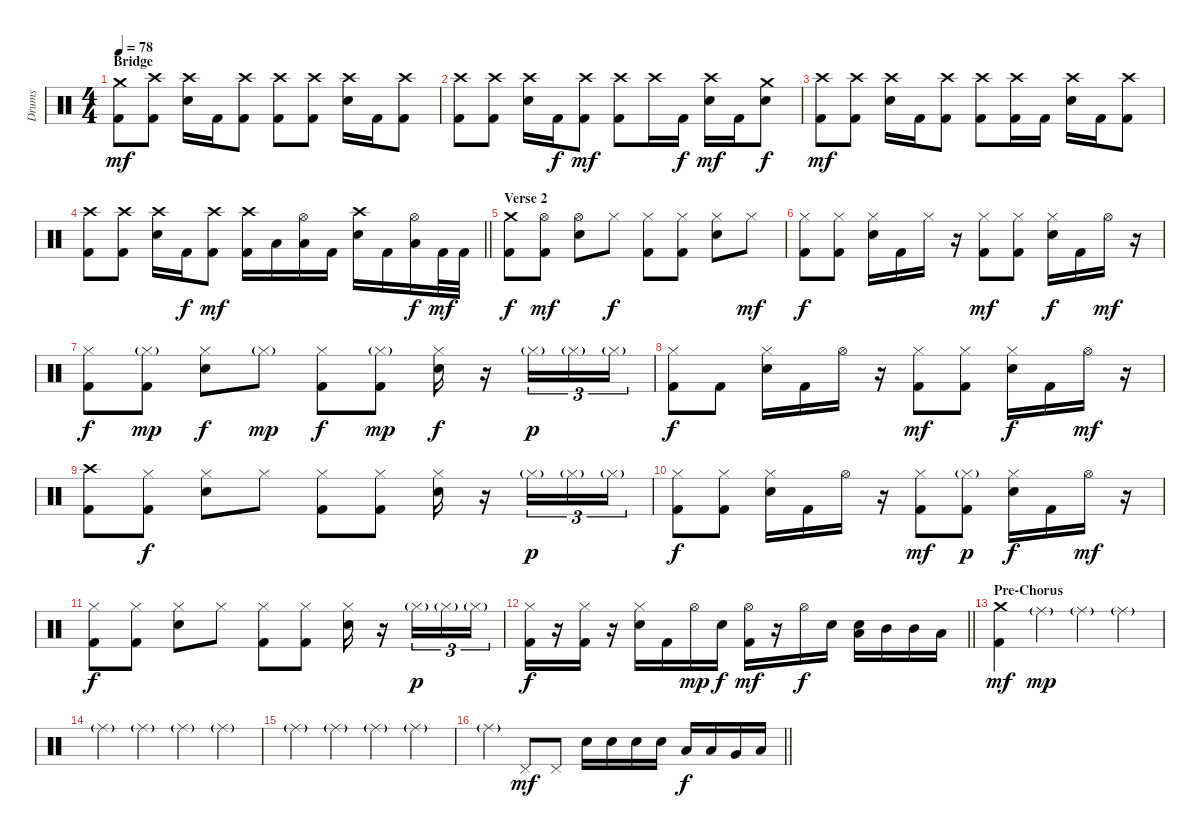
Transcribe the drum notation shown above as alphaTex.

\track ("Drums" "Drums") {instrument percussion}
\staff {score}
\articulation defaults
\ts (4 4)
\section ("" "Bridge")
\tempo 78
\clef neutral
\ks c
("Crash medium (hit)" "Kick (hit) 2").8{dy mf} ("Crash high (hit)" "Kick (hit) 2").8 ("Crash high (hit)" "Electric Snare (hit)").16 "Kick (hit) 2".16 ("Crash high (hit)" "Kick (hit) 2").8 ("Crash high (hit)" "Kick (hit) 2").8 ("Crash high (hit)" "Kick (hit) 2").8 ("Crash high (hit)" "Electric Snare (hit)").16 "Kick (hit) 2".16 ("Crash high (hit)" "Kick (hit) 2").8 |
("Crash high (hit)" "Kick (hit) 2").8 ("Crash high (hit)" "Kick (hit) 2").8 ("Crash high (hit)" "Electric Snare (hit)").16 "Kick (hit) 2".16{dy f} ("Crash high (hit)" "Kick (hit) 2").8{dy mf} ("Crash high (hit)" "Kick (hit) 2").8 "Crash high (hit)".16 "Kick (hit) 2".16{dy f} ("Crash high (hit)" "Electric Snare (hit)").16{dy mf} "Kick (hit) 2".16 ("Crash medium (hit)" "Electric Snare (hit)").8{dy f} |
("Crash high (hit)" "Kick (hit) 2").8{dy mf} ("Crash high (hit)" "Kick (hit) 2").8 ("Crash high (hit)" "Electric Snare (hit)").16 "Kick (hit) 2".16 ("Crash high (hit)" "Kick (hit) 2").8 ("Crash high (hit)" "Kick (hit) 2").8 ("Crash high (hit)" "Kick (hit) 2").16 "Kick (hit) 2".16 ("Crash high (hit)" "Electric Snare (hit)").16 "Kick (hit) 2".16 ("Crash high (hit)" "Kick (hit) 2").8 |
\barLineRight lightlight
("Crash high (hit)" "Kick (hit) 2").8 ("Crash high (hit)" "Kick (hit) 2").8 ("Crash high (hit)" "Electric Snare (hit)").16 "Kick (hit) 2".16{dy f} ("Crash high (hit)" "Kick (hit) 2").8{dy mf} ("Crash high (hit)" "Kick (hit) 2").16 "Low Tom (hit)".16 ("Hi-Hat (open)" "Low Tom (hit)").16 "Kick (hit) 2".16 ("Crash high (hit)" "Electric Snare (hit)").16 "Kick (hit) 2".16 ("Hi-Hat (open)" "Low Tom (hit)").16{dy f} "Kick (hit) 2".32{dy mf} "Kick (hit) 2".32 |
\section ("" "Verse 2")
("Crash medium (hit)" "Kick (hit) 2").8{dy f} ("Hi-Hat (open)" "Kick (hit) 2").8{dy mf} ("Hi-Hat (open)" "Electric Snare (hit)").8 "Hi-Hat (closed)".8{dy f} ("Hi-Hat (closed)" "Kick (hit) 2").8 ("Hi-Hat (closed)" "Kick (hit) 2").8 ("Hi-Hat (closed)" "Electric Snare (hit)").8 "Hi-Hat (closed)".8{dy mf} |
("Hi-Hat (closed)" "Kick (hit) 2").8{dy f} ("Hi-Hat (closed)" "Kick (hit) 2").8 ("Hi-Hat (closed)" "Electric Snare (hit)").16 "Kick (hit) 2".16 "Hi-Hat (closed)".16 r.16 ("Hi-Hat (closed)" "Kick (hit) 2").8{dy mf} ("Hi-Hat (closed)" "Kick (hit) 2").8 ("Hi-Hat (closed)" "Electric Snare (hit)").16{dy f} "Kick (hit) 2".16 "Hi-Hat (open)".16{dy mf} r.16 |
("Hi-Hat (closed)" "Kick (hit) 2").8{dy f} ("Hi-Hat (closed)"{g} "Kick (hit) 2").8{dy mp} ("Hi-Hat (closed)" "Electric Snare (hit)").8{dy f} "Hi-Hat (closed)"{g}.8{dy mp} ("Hi-Hat (closed)" "Kick (hit) 2").8{dy f} ("Hi-Hat (closed)"{g} "Kick (hit) 2").8{dy mp} ("Hi-Hat (closed)" "Electric Snare (hit)").16{dy f} r.16 "Hi-Hat (closed)"{g}.16{tu (3 2) dy p} "Hi-Hat (closed)"{g}.16{tu (3 2)} "Hi-Hat (closed)"{g}.16{tu (3 2)} |
("Hi-Hat (closed)" "Kick (hit) 2").8{dy f} "Kick (hit) 2".8 ("Hi-Hat (closed)" "Electric Snare (hit)").16 "Kick (hit) 2".16 "Hi-Hat (open)".16 r.16 ("Hi-Hat (closed)" "Kick (hit) 2").8{dy mf} ("Hi-Hat (closed)" "Kick (hit) 2").8 ("Hi-Hat (closed)" "Electric Snare (hit)").16{dy f} "Kick (hit) 2".16 "Hi-Hat (open)".16{dy mf} r.16 |
("Crash high (hit)" "Kick (hit) 2").8 ("Hi-Hat (closed)" "Kick (hit) 2").8{dy f} ("Hi-Hat (closed)" "Electric Snare (hit)").8 "Hi-Hat (closed)".8 ("Hi-Hat (closed)" "Kick (hit) 2").8 ("Hi-Hat (closed)" "Kick (hit) 2").8 ("Hi-Hat (closed)" "Electric Snare (hit)").16 r.16 "Hi-Hat (closed)"{g}.16{tu (3 2) dy p} "Hi-Hat (closed)"{g}.16{tu (3 2)} "Hi-Hat (closed)"{g}.16{tu (3 2)} |
("Hi-Hat (closed)" "Kick (hit) 2").8{dy f} ("Hi-Hat (closed)" "Kick (hit) 2").8 ("Hi-Hat (closed)" "Electric Snare (hit)").16 "Kick (hit) 2".16 "Hi-Hat (open)".16 r.16 ("Hi-Hat (closed)" "Kick (hit) 2").8{dy mf} ("Hi-Hat (closed)"{g} "Kick (hit) 2").8{dy p} ("Hi-Hat (closed)" "Electric Snare (hit)").16{dy f} "Kick (hit) 2".16 "Hi-Hat (open)".16{dy mf} r.16 |
("Hi-Hat (closed)" "Kick (hit) 2").8{dy f} ("Hi-Hat (closed)" "Kick (hit) 2").8 ("Hi-Hat (closed)" "Electric Snare (hit)").8 "Hi-Hat (closed)".8 ("Hi-Hat (closed)" "Kick (hit) 2").8 ("Hi-Hat (closed)" "Kick (hit) 2").8 ("Hi-Hat (closed)" "Electric Snare (hit)").16 r.16 "Hi-Hat (closed)"{g}.16{tu (3 2) dy p} "Hi-Hat (closed)"{g}.16{tu (3 2)} "Hi-Hat (closed)"{g}.16{tu (3 2)} |
\barLineRight lightlight
("Hi-Hat (closed)" "Kick (hit) 2").16{dy f} r.16 ("Hi-Hat (closed)" "Kick (hit) 2").16 r.16 ("Hi-Hat (closed)" "Electric Snare (hit)").16 "Kick (hit) 2".16 "Hi-Hat (open)".16{dy mp} "Electric Snare (hit)".16{dy f} ("Hi-Hat (open)" "Kick (hit) 2").16{dy mf} r.16 "Hi-Hat (open)".16{dy f} "Electric Snare (hit)".16 ("Low Tom (hit)" "Electric Snare (hit)").16 "Mid Tom (hit)".16 "Mid Tom (hit)".16 "Low Tom (hit)".16 |
\section ("" "Pre-Chorus")
("Crash medium (hit)" "Kick (hit) 2").4{dy mf} "Ride (middle)"{g}.4{dy mp} "Ride (middle)"{g}.4 "Ride (middle)"{g}.4 |
"Ride (middle)"{g}.4 "Ride (middle)"{g}.4 "Ride (middle)"{g}.4 "Ride (middle)"{g}.4 |
"Ride (middle)"{g}.4 "Ride (middle)"{g}.4 "Ride (middle)"{g}.4 "Ride (middle)"{g}.4 |
\barLineRight lightlight "Ride (middle)"{g}.4 "Pedal Hi-Hat (hit)".8{dy mf} "Pedal Hi-Hat (hit)".8 "Electric Snare (hit)".16 "Electric Snare (hit)".16 "Electric Snare (hit)".16 "Electric Snare (hit)".16 "Low Tom (hit)".16{dy f} "Low Tom (hit)".16 "Very Low Tom (hit)".16 "Low Floor Tom (hit)".16
